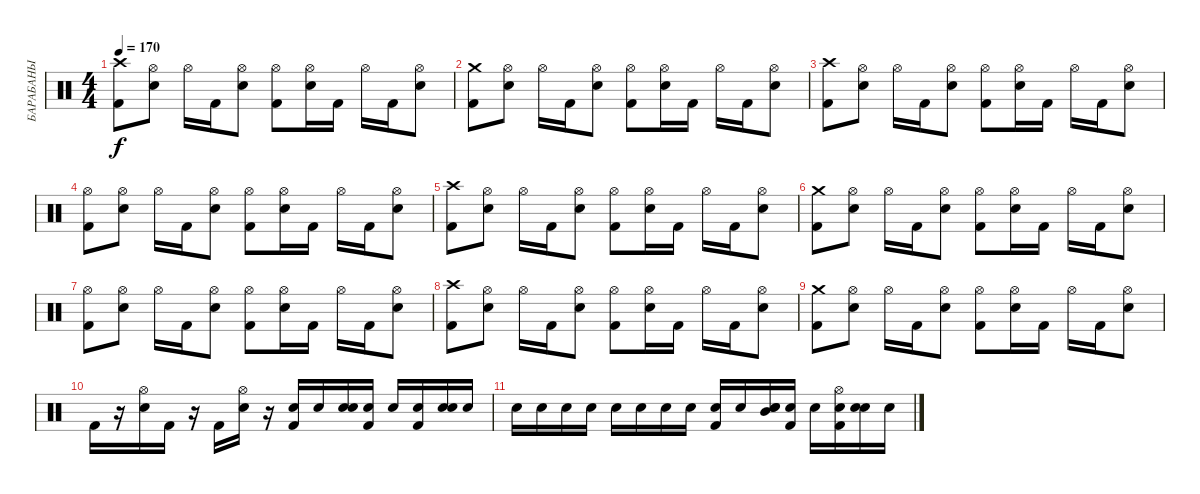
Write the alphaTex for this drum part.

\track ("БАРАБАНЫ" "БАРАБАНЫ") {instrument percussion}
\staff {score}
\articulation defaults
\ts (4 4)
\tempo 170
\clef neutral
\ks c
("Kick (hit) 2" "Crash high (hit)").8{dy f} ("Electric Snare (hit)" "Hi-Hat (open)").8 "Hi-Hat (open)".16 "Kick (hit) 2".16 ("Electric Snare (hit)" "Hi-Hat (open)").8 ("Kick (hit) 2" "Hi-Hat (open)").8 ("Electric Snare (hit)" "Hi-Hat (open)").16 "Kick (hit) 2".16 "Hi-Hat (open)".16 "Kick (hit) 2".16 ("Electric Snare (hit)" "Hi-Hat (open)").8 |
("Kick (hit) 2" "Crash medium (hit)").8 ("Electric Snare (hit)" "Hi-Hat (open)").8 "Hi-Hat (open)".16 "Kick (hit) 2".16 ("Electric Snare (hit)" "Hi-Hat (open)").8 ("Kick (hit) 2" "Hi-Hat (open)").8 ("Electric Snare (hit)" "Hi-Hat (open)").16 "Kick (hit) 2".16 "Hi-Hat (open)".16 "Kick (hit) 2".16 ("Electric Snare (hit)" "Hi-Hat (open)").8 |
("Kick (hit) 2" "Crash high (hit)").8 ("Electric Snare (hit)" "Hi-Hat (open)").8 "Hi-Hat (open)".16 "Kick (hit) 2".16 ("Electric Snare (hit)" "Hi-Hat (open)").8 ("Kick (hit) 2" "Hi-Hat (open)").8 ("Electric Snare (hit)" "Hi-Hat (open)").16 "Kick (hit) 2".16 "Hi-Hat (open)".16 "Kick (hit) 2".16 ("Electric Snare (hit)" "Hi-Hat (open)").8 |
("Kick (hit) 2" "Hi-Hat (open)").8 ("Electric Snare (hit)" "Hi-Hat (open)").8 "Hi-Hat (open)".16 "Kick (hit) 2".16 ("Electric Snare (hit)" "Hi-Hat (open)").8 ("Kick (hit) 2" "Hi-Hat (open)").8 ("Electric Snare (hit)" "Hi-Hat (open)").16 "Kick (hit) 2".16 "Hi-Hat (open)".16 "Kick (hit) 2".16 ("Electric Snare (hit)" "Hi-Hat (open)").8 |
("Kick (hit) 2" "Crash high (hit)").8 ("Electric Snare (hit)" "Hi-Hat (open)").8 "Hi-Hat (open)".16 "Kick (hit) 2".16 ("Electric Snare (hit)" "Hi-Hat (open)").8 ("Kick (hit) 2" "Hi-Hat (open)").8 ("Electric Snare (hit)" "Hi-Hat (open)").16 "Kick (hit) 2".16 "Hi-Hat (open)".16 "Kick (hit) 2".16 ("Electric Snare (hit)" "Hi-Hat (open)").8 |
("Kick (hit) 2" "Crash medium (hit)").8 ("Electric Snare (hit)" "Hi-Hat (open)").8 "Hi-Hat (open)".16 "Kick (hit) 2".16 ("Electric Snare (hit)" "Hi-Hat (open)").8 ("Kick (hit) 2" "Hi-Hat (open)").8 ("Electric Snare (hit)" "Hi-Hat (open)").16 "Kick (hit) 2".16 "Hi-Hat (open)".16 "Kick (hit) 2".16 ("Electric Snare (hit)" "Hi-Hat (open)").8 |
("Kick (hit) 2" "Hi-Hat (open)").8 ("Electric Snare (hit)" "Hi-Hat (open)").8 "Hi-Hat (open)".16 "Kick (hit) 2".16 ("Electric Snare (hit)" "Hi-Hat (open)").8 ("Kick (hit) 2" "Hi-Hat (open)").8 ("Electric Snare (hit)" "Hi-Hat (open)").16 "Kick (hit) 2".16 "Hi-Hat (open)".16 "Kick (hit) 2".16 ("Electric Snare (hit)" "Hi-Hat (open)").8 |
("Kick (hit) 2" "Crash high (hit)").8 ("Electric Snare (hit)" "Hi-Hat (open)").8 "Hi-Hat (open)".16 "Kick (hit) 2".16 ("Electric Snare (hit)" "Hi-Hat (open)").8 ("Kick (hit) 2" "Hi-Hat (open)").8 ("Electric Snare (hit)" "Hi-Hat (open)").16 "Kick (hit) 2".16 "Hi-Hat (open)".16 "Kick (hit) 2".16 ("Electric Snare (hit)" "Hi-Hat (open)").8 |
("Kick (hit) 2" "Crash medium (hit)").8 ("Electric Snare (hit)" "Hi-Hat (open)").8 "Hi-Hat (open)".16 "Kick (hit) 2".16 ("Electric Snare (hit)" "Hi-Hat (open)").8 ("Kick (hit) 2" "Hi-Hat (open)").8 ("Electric Snare (hit)" "Hi-Hat (open)").16 "Kick (hit) 2".16 "Hi-Hat (open)".16 "Kick (hit) 2".16 ("Electric Snare (hit)" "Hi-Hat (open)").8 |
"Kick (hit) 2".16 r.16 ("Electric Snare (hit)" "Hi-Hat (open)").16 "Kick (hit) 2".16 r.16 "Kick (hit) 2".16 ("Electric Snare (hit)" "Hi-Hat (open)").16 r.16 ("Kick (hit) 2" "Electric Snare (hit)").16 "Electric Snare (hit)".16 ("Electric Snare (hit)" "Electric Snare (hit)").16 ("Kick (hit) 2" "Electric Snare (hit)").16 "Electric Snare (hit)".16 ("Kick (hit) 2" "Electric Snare (hit)").16 ("Electric Snare (hit)" "Electric Snare (hit)").16 "Electric Snare (hit)".16 |
"Electric Snare (hit)".16 "Electric Snare (hit)".16 "Electric Snare (hit)".16 "Electric Snare (hit)".16 "Electric Snare (hit)".16 "Electric Snare (hit)".16 "Electric Snare (hit)".16 "Electric Snare (hit)".16 ("Kick (hit) 2" "Electric Snare (hit)").16 "Electric Snare (hit)".16 ("Electric Snare (hit)" "Mid Tom (hit)" "Electric Snare (hit)").16 ("Kick (hit) 2" "Electric Snare (hit)").16 "Electric Snare (hit)".16 ("Kick (hit) 2" "Hi-Hat (open)" "Electric Snare (hit)").16 ("Electric Snare (hit)" "Electric Snare (hit)").16 "Electric Snare (hit)".16
